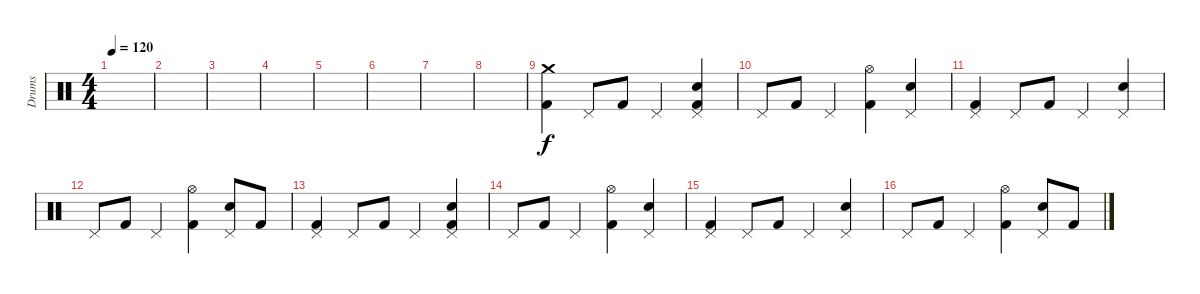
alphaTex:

\track ("Drums" "Drums") {instrument percussion}
\staff {score}
\articulation defaults
\ts (4 4)
\tempo 120
\clef neutral
\ks c
|
|
|
|
|
|
|
|
("Crash medium (hit)" "Kick (hit) 2").4 "Pedal Hi-Hat (hit)".8 "Kick (hit) 2".8 "Pedal Hi-Hat (hit)".4 ("Pedal Hi-Hat (hit)" "Snare (hit) 2" "Kick (hit) 2").4 |
"Pedal Hi-Hat (hit)".8 "Kick (hit) 2".8 "Pedal Hi-Hat (hit)".4 ("Hi-Hat (open)" "Kick (hit) 2").4 ("Pedal Hi-Hat (hit)" "Snare (hit) 2").4 |
("Pedal Hi-Hat (hit)" "Kick (hit) 2").4 "Pedal Hi-Hat (hit)".8 "Kick (hit) 2".8 "Pedal Hi-Hat (hit)".4 ("Pedal Hi-Hat (hit)" "Snare (hit) 2").4 |
"Pedal Hi-Hat (hit)".8 "Kick (hit) 2".8 "Pedal Hi-Hat (hit)".4 ("Hi-Hat (open)" "Kick (hit) 2").4 ("Pedal Hi-Hat (hit)" "Snare (hit) 2").8 "Kick (hit) 2".8 |
("Pedal Hi-Hat (hit)" "Kick (hit) 2").4 "Pedal Hi-Hat (hit)".8 "Kick (hit) 2".8 "Pedal Hi-Hat (hit)".4 ("Pedal Hi-Hat (hit)" "Snare (hit) 2" "Kick (hit) 2").4 |
"Pedal Hi-Hat (hit)".8 "Kick (hit) 2".8 "Pedal Hi-Hat (hit)".4 ("Hi-Hat (open)" "Kick (hit) 2").4 ("Pedal Hi-Hat (hit)" "Snare (hit) 2").4 |
("Pedal Hi-Hat (hit)" "Kick (hit) 2").4 "Pedal Hi-Hat (hit)".8 "Kick (hit) 2".8 "Pedal Hi-Hat (hit)".4 ("Pedal Hi-Hat (hit)" "Snare (hit) 2").4 |
"Pedal Hi-Hat (hit)".8 "Kick (hit) 2".8 "Pedal Hi-Hat (hit)".4 ("Hi-Hat (open)" "Kick (hit) 2").4 ("Pedal Hi-Hat (hit)" "Snare (hit) 2").8 "Kick (hit) 2".8
